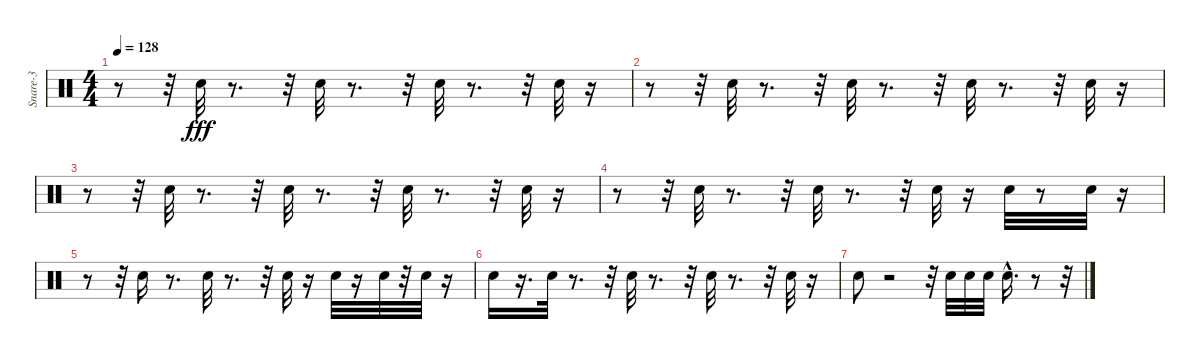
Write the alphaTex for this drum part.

\track ("Snare-3" "Snare-3") {instrument percussion}
\staff {score}
\articulation defaults
\ts (4 4)
\tempo 128
\clef neutral
\ks c
r.8{dy fff} r.32 "Electric Snare (hit)".32 r.8{d} r.32 "Electric Snare (hit)".32 r.8{d} r.32 "Electric Snare (hit)".32 r.8{d} r.32 "Electric Snare (hit)".32 r.16 |
r.8 r.32 "Electric Snare (hit)".32 r.8{d} r.32 "Electric Snare (hit)".32 r.8{d} r.32 "Electric Snare (hit)".32 r.8{d} r.32 "Electric Snare (hit)".32 r.16 |
r.8 r.32 "Electric Snare (hit)".32 r.8{d} r.32 "Electric Snare (hit)".32 r.8{d} r.32 "Electric Snare (hit)".32 r.8{d} r.32 "Electric Snare (hit)".32 r.16 |
r.8 r.32 "Electric Snare (hit)".32 r.8{d} r.32 "Electric Snare (hit)".32 r.8{d} r.32 "Electric Snare (hit)".32 r.16 "Electric Snare (hit)".32 r.8 "Electric Snare (hit)".32 r.16 |
r.8 r.32 "Electric Snare (hit)".16 r.8{d} "Electric Snare (hit)".32 r.8{d} r.32 "Electric Snare (hit)".32 r.16 "Electric Snare (hit)".32 r.16 "Electric Snare (hit)".32 r.32 "Electric Snare (hit)".32 r.16 |
"Electric Snare (hit)".16 r.16{d} "Electric Snare (hit)".32 r.8{d} r.32 "Electric Snare (hit)".32 r.8{d} r.32 "Electric Snare (hit)".32 r.8{d} r.32 "Electric Snare (hit)".32 r.16 |
"Electric Snare (hit)".8 r.2 r.32 "Electric Snare (hit)".32 "Electric Snare (hit)".32 "Electric Snare (hit)".32 "Electric Snare (hit)"{hac}.16{d} r.8 r.32
